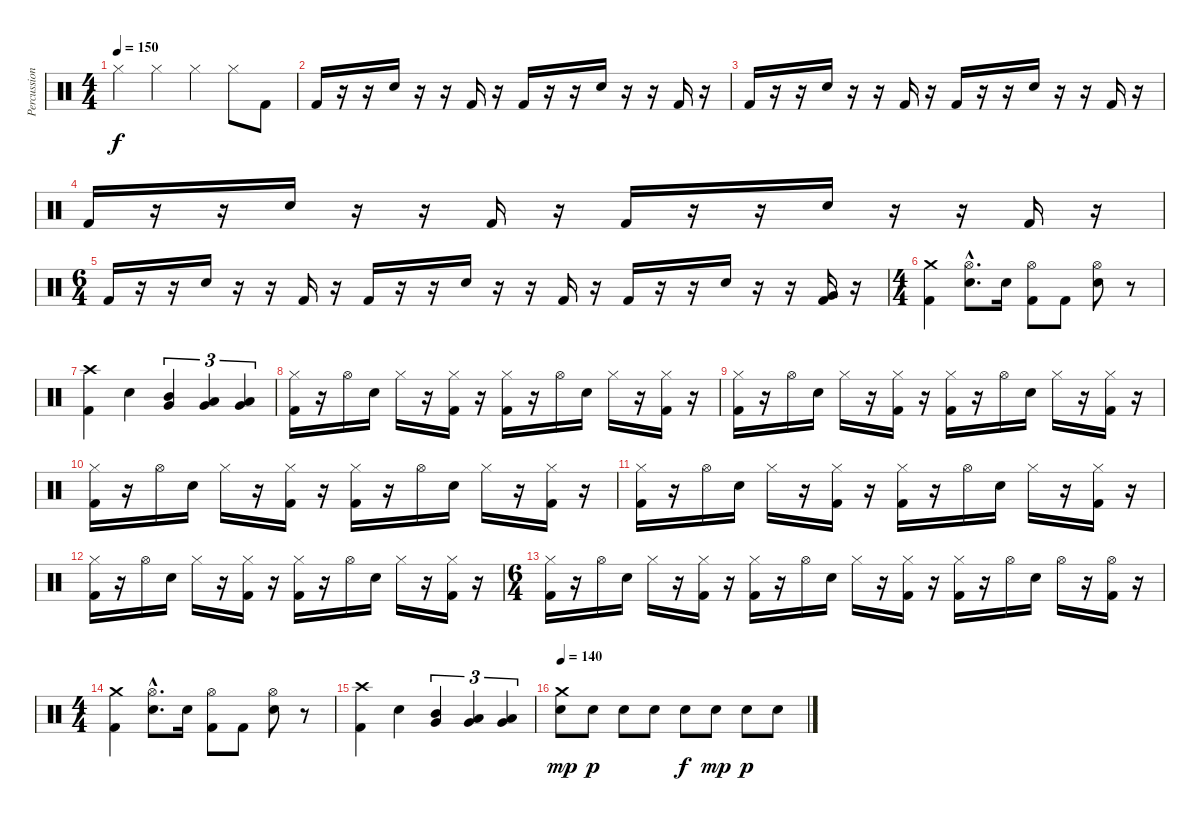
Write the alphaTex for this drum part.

\track ("Percussion" "Percussion") {instrument percussion}
\staff {score}
\articulation defaults
\ts (4 4)
\tempo 150
\clef neutral
\ks c "Hi-Hat (closed)".4{dy f} "Hi-Hat (closed)".4 "Hi-Hat (closed)".4 "Hi-Hat (closed)".8 "Kick (hit) 2".8
|
"Kick (hit) 2".16 r.16 r.16 "Snare (hit) 2".16 r.16 r.16 "Kick (hit) 2".16 r.16 "Kick (hit) 2".16 r.16 r.16 "Snare (hit) 2".16 r.16 r.16 "Kick (hit) 2".16 r.16 |
"Kick (hit) 2".16 r.16 r.16 "Snare (hit) 2".16 r.16 r.16 "Kick (hit) 2".16 r.16 "Kick (hit) 2".16 r.16 r.16 "Snare (hit) 2".16 r.16 r.16 "Kick (hit) 2".16 r.16 |
"Kick (hit) 2".16 r.16 r.16 "Snare (hit) 2".16 r.16 r.16 "Kick (hit) 2".16 r.16 "Kick (hit) 2".16 r.16 r.16 "Snare (hit) 2".16 r.16 r.16 "Kick (hit) 2".16 r.16 |
\ts (6 4)
"Kick (hit) 2".16 r.16 r.16 "Snare (hit) 2".16 r.16 r.16 "Kick (hit) 2".16 r.16 "Kick (hit) 2".16 r.16 r.16 "Snare (hit) 2".16 r.16 r.16 "Kick (hit) 2".16 r.16 "Kick (hit) 2".16 r.16 r.16 "Snare (hit) 2".16 r.16 r.16 ("Very Low Tom (hit)" "Kick (hit) 2").16 r.16 |
\ts (4 4)
("Crash medium (hit)" "Kick (hit) 2").4 ("Hi-Hat (open)"{hac} "Snare (hit) 2"{hac}).8{d} "Snare (hit) 2".16 ("Hi-Hat (open)" "Kick (hit) 2").8 "Kick (hit) 2".8 ("Hi-Hat (open)" "Snare (hit) 2").8 r.8 |
("Crash high (hit)" "Kick (hit) 2").4 "Snare (hit) 2".4 ("Mid Tom (hit)" "Very Low Tom (hit)").4{tu (3 2)} ("Low Tom (hit)" "Very Low Tom (hit)").4{tu (3 2)} ("Low Tom (hit)" "Very Low Tom (hit)").4{tu (3 2)} |
("Hi-Hat (closed)" "Kick (hit) 2").16 r.16 "Hi-Hat (open)".16 "Snare (hit) 2".16 "Hi-Hat (closed)".16 r.16 ("Hi-Hat (closed)" "Kick (hit) 2").16 r.16 ("Hi-Hat (closed)" "Kick (hit) 2").16 r.16 "Hi-Hat (open)".16 "Snare (hit) 2".16 "Hi-Hat (closed)".16 r.16 ("Hi-Hat (closed)" "Kick (hit) 2").16 r.16 |
("Hi-Hat (closed)" "Kick (hit) 2").16 r.16 "Hi-Hat (open)".16 "Snare (hit) 2".16 "Hi-Hat (closed)".16 r.16 ("Hi-Hat (closed)" "Kick (hit) 2").16 r.16 ("Hi-Hat (closed)" "Kick (hit) 2").16 r.16 "Hi-Hat (open)".16 "Snare (hit) 2".16 "Hi-Hat (closed)".16 r.16 ("Hi-Hat (closed)" "Kick (hit) 2").16 r.16 |
("Hi-Hat (closed)" "Kick (hit) 2").16 r.16 "Hi-Hat (open)".16 "Snare (hit) 2".16 "Hi-Hat (closed)".16 r.16 ("Hi-Hat (closed)" "Kick (hit) 2").16 r.16 ("Hi-Hat (closed)" "Kick (hit) 2").16 r.16 "Hi-Hat (open)".16 "Snare (hit) 2".16 "Hi-Hat (closed)".16 r.16 ("Hi-Hat (closed)" "Kick (hit) 2").16 r.16 |
("Hi-Hat (closed)" "Kick (hit) 2").16 r.16 "Hi-Hat (open)".16 "Snare (hit) 2".16 "Hi-Hat (closed)".16 r.16 ("Hi-Hat (closed)" "Kick (hit) 2").16 r.16 ("Hi-Hat (closed)" "Kick (hit) 2").16 r.16 "Hi-Hat (open)".16 "Snare (hit) 2".16 "Hi-Hat (closed)".16 r.16 ("Hi-Hat (closed)" "Kick (hit) 2").16 r.16 |
("Hi-Hat (closed)" "Kick (hit) 2").16 r.16 "Hi-Hat (open)".16 "Snare (hit) 2".16 "Hi-Hat (closed)".16 r.16 ("Hi-Hat (closed)" "Kick (hit) 2").16 r.16 ("Hi-Hat (closed)" "Kick (hit) 2").16 r.16 "Hi-Hat (open)".16 "Snare (hit) 2".16 "Hi-Hat (closed)".16 r.16 ("Hi-Hat (closed)" "Kick (hit) 2").16 r.16 |
\ts (6 4)
("Hi-Hat (closed)" "Kick (hit) 2").16 r.16 "Hi-Hat (open)".16 "Snare (hit) 2".16 "Hi-Hat (closed)".16 r.16 ("Hi-Hat (closed)" "Kick (hit) 2").16 r.16 ("Hi-Hat (closed)" "Kick (hit) 2").16 r.16 "Hi-Hat (open)".16 "Snare (hit) 2".16 "Hi-Hat (closed)".16 r.16 ("Hi-Hat (closed)" "Kick (hit) 2").16 r.16 ("Hi-Hat (closed)" "Kick (hit) 2").16 r.16 "Hi-Hat (open)".16 "Snare (hit) 2".16 "Hi-Hat (open)".16 r.16 ("Hi-Hat (open)" "Kick (hit) 2").16 r.16 |
\ts (4 4)
("Crash medium (hit)" "Kick (hit) 2").4 ("Hi-Hat (open)"{hac} "Snare (hit) 2"{hac}).8{d} "Snare (hit) 2".16 ("Hi-Hat (open)" "Kick (hit) 2").8 "Kick (hit) 2".8 ("Hi-Hat (open)" "Snare (hit) 2").8 r.8 |
("Crash high (hit)" "Kick (hit) 2").4 "Snare (hit) 2".4 ("Mid Tom (hit)" "Very Low Tom (hit)").4{tu (3 2)} ("Low Tom (hit)" "Very Low Tom (hit)").4{tu (3 2)} ("Low Tom (hit)" "Very Low Tom (hit)").4{tu (3 2)} |
\tempo 140
("Crash medium (hit)" "Snare (hit) 2").8{dy mp} "Snare (hit) 2".8{dy p} "Snare (hit) 2".8 "Snare (hit) 2".8 "Snare (hit) 2".8{dy f} "Snare (hit) 2".8{dy mp} "Snare (hit) 2".8{dy p} "Snare (hit) 2".8
